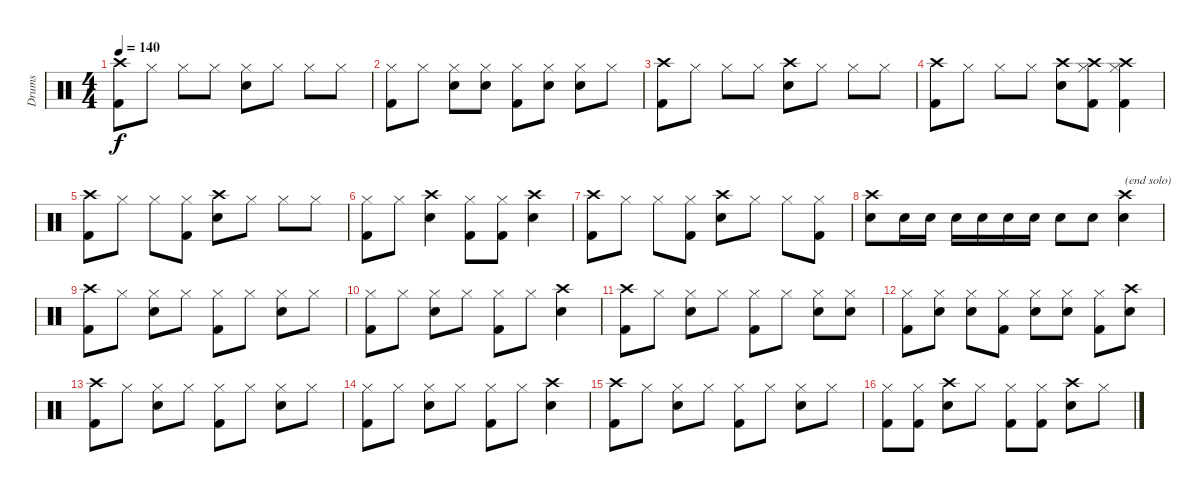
\track ("Drums" "Drums") {instrument percussion}
\staff {score}
\articulation defaults
\ts (4 4)
\tempo 140
\clef neutral
\ks c
("Crash high (hit)" "Kick (hit) 2").8{dy f} "Hi-Hat (closed)".8 "Hi-Hat (closed)".8 "Hi-Hat (closed)".8 ("Hi-Hat (closed)" "Snare (hit) 2").8 "Hi-Hat (closed)".8 "Hi-Hat (closed)".8 "Hi-Hat (closed)".8 |
("Hi-Hat (closed)" "Kick (hit) 2").8 "Hi-Hat (closed)".8 ("Hi-Hat (closed)" "Snare (hit) 2").8 ("Hi-Hat (closed)" "Snare (hit) 2").8 ("Hi-Hat (closed)" "Kick (hit) 2").8 ("Hi-Hat (closed)" "Snare (hit) 2").8 ("Hi-Hat (closed)" "Snare (hit) 2").8 "Hi-Hat (closed)".8 |
("Crash high (hit)" "Kick (hit) 2").8 "Hi-Hat (closed)".8 "Hi-Hat (closed)".8 "Hi-Hat (closed)".8 ("Crash high (hit)" "Snare (hit) 2").8 "Hi-Hat (closed)".8 "Hi-Hat (closed)".8 "Hi-Hat (closed)".8 |
("Crash high (hit)" "Kick (hit) 2").8 "Hi-Hat (closed)".8 "Hi-Hat (closed)".8 "Hi-Hat (closed)".8 ("Crash high (hit)" "Snare (hit) 2").8 ("Crash high (hit)" "Hi-Hat (closed)" "Kick (hit) 2").8 ("Crash high (hit)" "Hi-Hat (closed)" "Kick (hit) 2").4 |
("Crash high (hit)" "Kick (hit) 2").8 "Hi-Hat (closed)".8 "Hi-Hat (closed)".8 ("Hi-Hat (closed)" "Kick (hit) 2").8 ("Crash high (hit)" "Snare (hit) 2").8 "Hi-Hat (closed)".8 "Hi-Hat (closed)".8 "Hi-Hat (closed)".8 |
("Hi-Hat (closed)" "Kick (hit) 2").8 "Hi-Hat (closed)".8 ("Crash high (hit)" "Snare (hit) 2").4 ("Hi-Hat (closed)" "Kick (hit) 2").8 ("Hi-Hat (closed)" "Kick (hit) 2").8 ("Crash high (hit)" "Snare (hit) 2").4 |
("Crash high (hit)" "Kick (hit) 2").8 "Hi-Hat (closed)".8 "Hi-Hat (closed)".8 ("Hi-Hat (closed)" "Kick (hit) 2").8 ("Crash high (hit)" "Snare (hit) 2").8 "Hi-Hat (closed)".8 "Hi-Hat (closed)".8 ("Hi-Hat (closed)" "Kick (hit) 2").8 |
("Crash high (hit)" "Snare (hit) 2").8 "Snare (hit) 2".16 "Snare (hit) 2".16 "Snare (hit) 2".16 "Snare (hit) 2".16 "Snare (hit) 2".16 "Snare (hit) 2".16 "Snare (hit) 2".8 "Snare (hit) 2".8 ("Crash high (hit)" "Snare (hit) 2").4{txt "(end solo)"} |
("Crash high (hit)" "Kick (hit) 2").8 "Hi-Hat (closed)".8 ("Hi-Hat (closed)" "Snare (hit) 2").8 "Hi-Hat (closed)".8 ("Hi-Hat (closed)" "Kick (hit) 2").8 "Hi-Hat (closed)".8 ("Hi-Hat (closed)" "Snare (hit) 2").8 "Hi-Hat (closed)".8 |
("Hi-Hat (closed)" "Kick (hit) 2").8 "Hi-Hat (closed)".8 ("Hi-Hat (closed)" "Snare (hit) 2").8 "Hi-Hat (closed)".8 ("Hi-Hat (closed)" "Kick (hit) 2").8 "Hi-Hat (closed)".8 ("Crash high (hit)" "Snare (hit) 2").4 |
("Crash high (hit)" "Kick (hit) 2").8 "Hi-Hat (closed)".8 ("Hi-Hat (closed)" "Snare (hit) 2").8 "Hi-Hat (closed)".8 ("Hi-Hat (closed)" "Kick (hit) 2").8 "Hi-Hat (closed)".8 ("Hi-Hat (closed)" "Snare (hit) 2").8 ("Hi-Hat (closed)" "Snare (hit) 2").8 |
("Hi-Hat (closed)" "Kick (hit) 2").8 ("Hi-Hat (closed)" "Snare (hit) 2").8 ("Hi-Hat (closed)" "Snare (hit) 2").8 ("Hi-Hat (closed)" "Kick (hit) 2").8 ("Hi-Hat (closed)" "Snare (hit) 2").8 ("Hi-Hat (closed)" "Snare (hit) 2").8 ("Hi-Hat (closed)" "Kick (hit) 2").8 ("Crash high (hit)" "Snare (hit) 2").8 |
("Crash high (hit)" "Kick (hit) 2").8 "Hi-Hat (closed)".8 ("Hi-Hat (closed)" "Snare (hit) 2").8 "Hi-Hat (closed)".8 ("Hi-Hat (closed)" "Kick (hit) 2").8 "Hi-Hat (closed)".8 ("Hi-Hat (closed)" "Snare (hit) 2").8 "Hi-Hat (closed)".8 |
("Hi-Hat (closed)" "Kick (hit) 2").8 "Hi-Hat (closed)".8 ("Hi-Hat (closed)" "Snare (hit) 2").8 "Hi-Hat (closed)".8 ("Hi-Hat (closed)" "Kick (hit) 2").8 "Hi-Hat (closed)".8 ("Crash high (hit)" "Snare (hit) 2").4 |
("Crash high (hit)" "Kick (hit) 2").8 "Hi-Hat (closed)".8 ("Hi-Hat (closed)" "Snare (hit) 2").8 "Hi-Hat (closed)".8 ("Hi-Hat (closed)" "Kick (hit) 2").8 "Hi-Hat (closed)".8 ("Hi-Hat (closed)" "Snare (hit) 2").8 "Hi-Hat (closed)".8 |
("Hi-Hat (closed)" "Kick (hit) 2").8 ("Hi-Hat (closed)" "Kick (hit) 2").8 ("Crash high (hit)" "Snare (hit) 2").8 "Hi-Hat (closed)".8 ("Hi-Hat (closed)" "Kick (hit) 2").8 ("Hi-Hat (closed)" "Kick (hit) 2").8 ("Crash high (hit)" "Snare (hit) 2").8 "Hi-Hat (closed)".8
